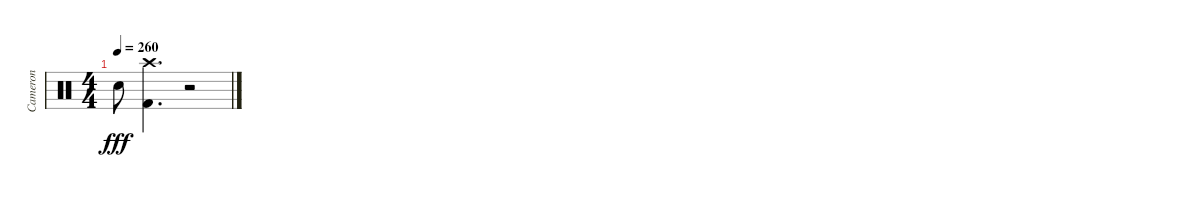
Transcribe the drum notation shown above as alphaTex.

\track ("Cameron" "Cameron") {instrument percussion}
\staff {score}
\articulation defaults
\ts (4 4)
\tempo 260
\clef neutral
\ks c "Electric Snare (hit)".8{dy fff}
("Crash high (hit)" "Kick (hit) 2").4{d} r.2
